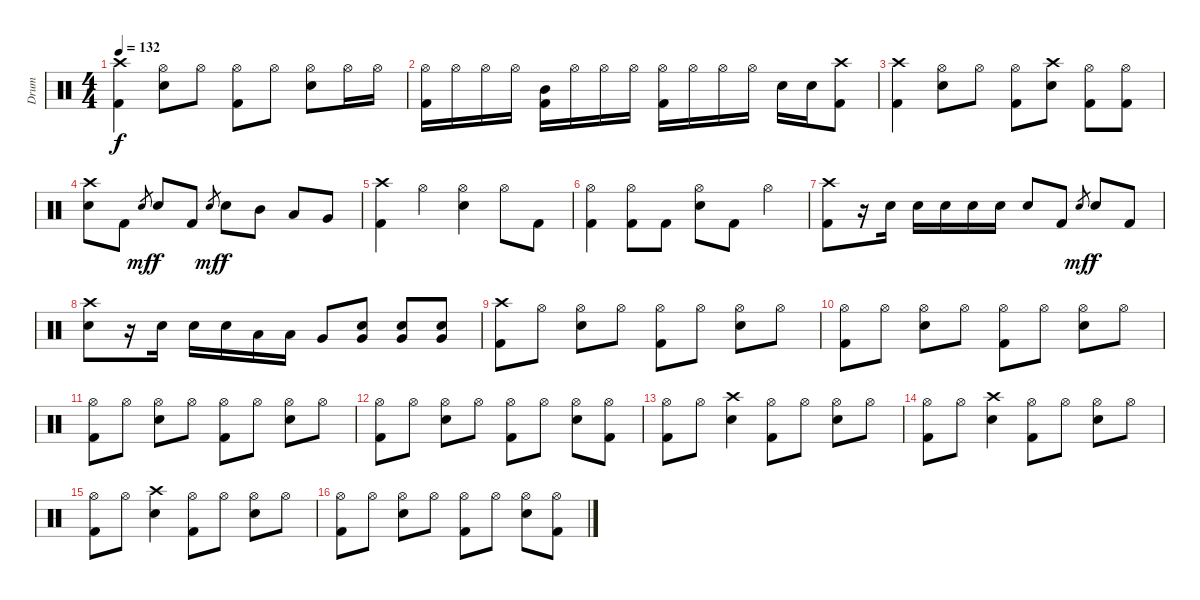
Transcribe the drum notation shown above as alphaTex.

\track ("Drum" "Drum") {instrument percussion}
\staff {score}
\articulation defaults
\ts (4 4)
\tempo 132
\clef neutral
\ks c
("Crash high (hit)" "Kick (hit) 2").4{dy f} ("Hi-Hat (open)" "Snare (hit) 2").8 "Hi-Hat (open)".8 ("Hi-Hat (open)" "Kick (hit) 2").8 "Hi-Hat (open)".8 ("Hi-Hat (open)" "Snare (hit) 2").8 "Hi-Hat (open)".16 "Hi-Hat (open)".16 |
("Hi-Hat (open)" "Kick (hit) 2").16 "Hi-Hat (open)".16 "Hi-Hat (open)".16 "Hi-Hat (open)".16 ("Mid Tom (hit)" "Kick (hit) 2").16 "Hi-Hat (open)".16 "Hi-Hat (open)".16 "Hi-Hat (open)".16 ("Hi-Hat (open)" "Kick (hit) 2").16 "Hi-Hat (open)".16 "Hi-Hat (open)".16 "Hi-Hat (open)".16 "Snare (hit) 2".16 "Snare (hit) 2".16 ("Crash high (hit)" "Kick (hit) 2").8 |
("Crash high (hit)" "Kick (hit) 2").4 ("Hi-Hat (open)" "Snare (hit) 2").8 "Hi-Hat (open)".8 ("Hi-Hat (open)" "Kick (hit) 2").8 ("Crash high (hit)" "Snare (hit) 2").8 ("Hi-Hat (open)" "Kick (hit) 2").8 ("Hi-Hat (open)" "Kick (hit) 2").8 |
("Crash high (hit)" "Snare (hit) 2").8 "Kick (hit) 2".8 "Snare (hit)".8{gr dy mf} "Snare (hit) 2".8{dy f} "Kick (hit) 2".8 "Snare (hit)".8{gr dy mf} "Snare (hit) 2".8{dy f} "Mid Tom (hit)".8 "Low Tom (hit)".8 "Very Low Tom (hit)".8 |
("Crash high (hit)" "Kick (hit) 2").4 "Hi-Hat (open)".4 ("Hi-Hat (open)" "Snare (hit) 2").4 "Hi-Hat (open)".8 "Kick (hit) 2".8 |
("Hi-Hat (open)" "Kick (hit) 2").4 ("Hi-Hat (open)" "Kick (hit) 2").8 "Kick (hit) 2".8 ("Hi-Hat (open)" "Snare (hit) 2").8 "Kick (hit) 2".8 "Hi-Hat (open)".4 |
("Crash high (hit)" "Kick (hit) 2").8 r.16 "Snare (hit) 2".16 "Snare (hit) 2".16 "Snare (hit) 2".16 "Snare (hit) 2".16 "Snare (hit) 2".16 "Snare (hit) 2".8 "Kick (hit) 2".8 "Snare (hit)".8{gr dy mf} "Snare (hit) 2".8{dy f} "Kick (hit) 2".8 |
("Crash high (hit)" "Snare (hit) 2").8 r.16 "Snare (hit) 2".16 "Snare (hit) 2".16 "Snare (hit) 2".16 "Low Tom (hit)".16 "Low Tom (hit)".16 "Very Low Tom (hit)".8 ("Very Low Tom (hit)" "Snare (hit) 2").8 ("Very Low Tom (hit)" "Snare (hit) 2").8 ("Very Low Tom (hit)" "Snare (hit) 2").8 |
("Crash high (hit)" "Kick (hit) 2").8 "Hi-Hat (open)".8 ("Hi-Hat (open)" "Snare (hit) 2").8 "Hi-Hat (open)".8 ("Hi-Hat (open)" "Kick (hit) 2").8 "Hi-Hat (open)".8 ("Hi-Hat (open)" "Snare (hit) 2").8 "Hi-Hat (open)".8 |
("Hi-Hat (open)" "Kick (hit) 2").8 "Hi-Hat (open)".8 ("Hi-Hat (open)" "Snare (hit) 2").8 "Hi-Hat (open)".8 ("Hi-Hat (open)" "Kick (hit) 2").8 "Hi-Hat (open)".8 ("Hi-Hat (open)" "Snare (hit) 2").8 "Hi-Hat (open)".8 |
("Hi-Hat (open)" "Kick (hit) 2").8 "Hi-Hat (open)".8 ("Hi-Hat (open)" "Snare (hit) 2").8 "Hi-Hat (open)".8 ("Hi-Hat (open)" "Kick (hit) 2").8 "Hi-Hat (open)".8 ("Hi-Hat (open)" "Snare (hit) 2").8 "Hi-Hat (open)".8 |
("Hi-Hat (open)" "Kick (hit) 2").8 "Hi-Hat (open)".8 ("Hi-Hat (open)" "Snare (hit) 2").8 "Hi-Hat (open)".8 ("Hi-Hat (open)" "Kick (hit) 2").8 "Hi-Hat (open)".8 ("Hi-Hat (open)" "Snare (hit) 2").8 ("Hi-Hat (open)" "Kick (hit) 2").8 |
("Hi-Hat (open)" "Kick (hit) 2").8 "Hi-Hat (open)".8 ("Crash high (hit)" "Snare (hit) 2").4 ("Hi-Hat (open)" "Kick (hit) 2").8 "Hi-Hat (open)".8 ("Hi-Hat (open)" "Snare (hit) 2").8 "Hi-Hat (open)".8 |
("Hi-Hat (open)" "Kick (hit) 2").8 "Hi-Hat (open)".8 ("Crash high (hit)" "Snare (hit) 2").4 ("Hi-Hat (open)" "Kick (hit) 2").8 "Hi-Hat (open)".8 ("Hi-Hat (open)" "Snare (hit) 2").8 "Hi-Hat (open)".8 |
("Hi-Hat (open)" "Kick (hit) 2").8 "Hi-Hat (open)".8 ("Crash high (hit)" "Snare (hit) 2").4 ("Hi-Hat (open)" "Kick (hit) 2").8 "Hi-Hat (open)".8 ("Hi-Hat (open)" "Snare (hit) 2").8 "Hi-Hat (open)".8 |
("Hi-Hat (open)" "Kick (hit) 2").8 "Hi-Hat (open)".8 ("Hi-Hat (open)" "Snare (hit) 2").8 "Hi-Hat (open)".8 ("Hi-Hat (open)" "Kick (hit) 2").8 "Hi-Hat (open)".8 ("Hi-Hat (open)" "Snare (hit) 2").8 ("Hi-Hat (open)" "Kick (hit) 2").8
